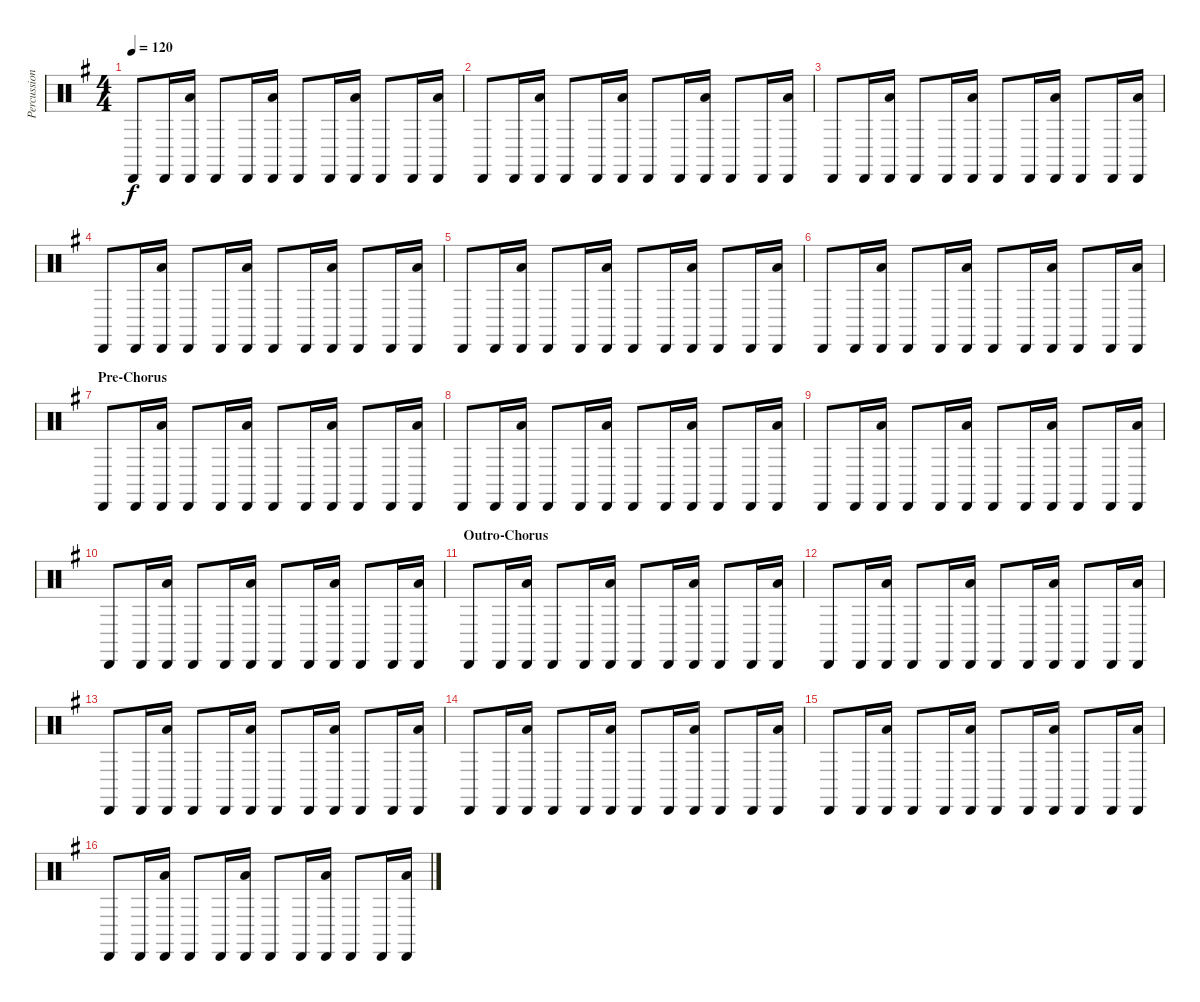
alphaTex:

\track ("Percussion" "Percussion") {instrument percussion}
\staff {score}
\articulation defaults
\ts (4 4)
\tempo 120
\clef neutral
\ks g "Cabasa (hit)".8{dy f} "Cabasa (hit)".16
("Cabasa (hit)" "Low Floor Tom (hit)").16 "Cabasa (hit)".8 "Cabasa (hit)".16 ("Cabasa (hit)" "Low Floor Tom (hit)").16 "Cabasa (hit)".8 "Cabasa (hit)".16 ("Cabasa (hit)" "Low Floor Tom (hit)").16 "Cabasa (hit)".8 "Cabasa (hit)".16 ("Cabasa (hit)" "Low Floor Tom (hit)").16 |
"Cabasa (hit)".8 "Cabasa (hit)".16 ("Cabasa (hit)" "Low Floor Tom (hit)").16 "Cabasa (hit)".8 "Cabasa (hit)".16 ("Cabasa (hit)" "Low Floor Tom (hit)").16 "Cabasa (hit)".8 "Cabasa (hit)".16 ("Cabasa (hit)" "Low Floor Tom (hit)").16 "Cabasa (hit)".8 "Cabasa (hit)".16 ("Cabasa (hit)" "Low Floor Tom (hit)").16 |
"Cabasa (hit)".8 "Cabasa (hit)".16 ("Cabasa (hit)" "Low Floor Tom (hit)").16 "Cabasa (hit)".8 "Cabasa (hit)".16 ("Cabasa (hit)" "Low Floor Tom (hit)").16 "Cabasa (hit)".8 "Cabasa (hit)".16 ("Cabasa (hit)" "Low Floor Tom (hit)").16 "Cabasa (hit)".8 "Cabasa (hit)".16 ("Cabasa (hit)" "Low Floor Tom (hit)").16 |
"Cabasa (hit)".8 "Cabasa (hit)".16 ("Cabasa (hit)" "Low Floor Tom (hit)").16 "Cabasa (hit)".8 "Cabasa (hit)".16 ("Cabasa (hit)" "Low Floor Tom (hit)").16 "Cabasa (hit)".8 "Cabasa (hit)".16 ("Cabasa (hit)" "Low Floor Tom (hit)").16 "Cabasa (hit)".8 "Cabasa (hit)".16 ("Cabasa (hit)" "Low Floor Tom (hit)").16 |
"Cabasa (hit)".8 "Cabasa (hit)".16 ("Cabasa (hit)" "Low Floor Tom (hit)").16 "Cabasa (hit)".8 "Cabasa (hit)".16 ("Cabasa (hit)" "Low Floor Tom (hit)").16 "Cabasa (hit)".8 "Cabasa (hit)".16 ("Cabasa (hit)" "Low Floor Tom (hit)").16 "Cabasa (hit)".8 "Cabasa (hit)".16 ("Cabasa (hit)" "Low Floor Tom (hit)").16 |
"Cabasa (hit)".8 "Cabasa (hit)".16 ("Cabasa (hit)" "Low Floor Tom (hit)").16 "Cabasa (hit)".8 "Cabasa (hit)".16 ("Cabasa (hit)" "Low Floor Tom (hit)").16 "Cabasa (hit)".8 "Cabasa (hit)".16 ("Cabasa (hit)" "Low Floor Tom (hit)").16 "Cabasa (hit)".8 "Cabasa (hit)".16 ("Cabasa (hit)" "Low Floor Tom (hit)").16 |
\section ("" "Pre-Chorus")
"Cabasa (hit)".8 "Cabasa (hit)".16 ("Cabasa (hit)" "Low Floor Tom (hit)").16 "Cabasa (hit)".8 "Cabasa (hit)".16 ("Cabasa (hit)" "Low Floor Tom (hit)").16 "Cabasa (hit)".8 "Cabasa (hit)".16 ("Cabasa (hit)" "Low Floor Tom (hit)").16 "Cabasa (hit)".8 "Cabasa (hit)".16 ("Cabasa (hit)" "Low Floor Tom (hit)").16 |
"Cabasa (hit)".8 "Cabasa (hit)".16 ("Cabasa (hit)" "Low Floor Tom (hit)").16 "Cabasa (hit)".8 "Cabasa (hit)".16 ("Cabasa (hit)" "Low Floor Tom (hit)").16 "Cabasa (hit)".8 "Cabasa (hit)".16 ("Cabasa (hit)" "Low Floor Tom (hit)").16 "Cabasa (hit)".8 "Cabasa (hit)".16 ("Cabasa (hit)" "Low Floor Tom (hit)").16 |
"Cabasa (hit)".8 "Cabasa (hit)".16 ("Cabasa (hit)" "Low Floor Tom (hit)").16 "Cabasa (hit)".8 "Cabasa (hit)".16 ("Cabasa (hit)" "Low Floor Tom (hit)").16 "Cabasa (hit)".8 "Cabasa (hit)".16 ("Cabasa (hit)" "Low Floor Tom (hit)").16 "Cabasa (hit)".8 "Cabasa (hit)".16 ("Cabasa (hit)" "Low Floor Tom (hit)").16 |
"Cabasa (hit)".8 "Cabasa (hit)".16 ("Cabasa (hit)" "Low Floor Tom (hit)").16 "Cabasa (hit)".8 "Cabasa (hit)".16 ("Cabasa (hit)" "Low Floor Tom (hit)").16 "Cabasa (hit)".8 "Cabasa (hit)".16 ("Cabasa (hit)" "Low Floor Tom (hit)").16 "Cabasa (hit)".8 "Cabasa (hit)".16 ("Cabasa (hit)" "Low Floor Tom (hit)").16 |
\section ("" "Outro-Chorus")
"Cabasa (hit)".8 "Cabasa (hit)".16 ("Cabasa (hit)" "Low Floor Tom (hit)").16 "Cabasa (hit)".8 "Cabasa (hit)".16 ("Cabasa (hit)" "Low Floor Tom (hit)").16 "Cabasa (hit)".8 "Cabasa (hit)".16 ("Cabasa (hit)" "Low Floor Tom (hit)").16 "Cabasa (hit)".8 "Cabasa (hit)".16 ("Cabasa (hit)" "Low Floor Tom (hit)").16 |
"Cabasa (hit)".8 "Cabasa (hit)".16 ("Cabasa (hit)" "Low Floor Tom (hit)").16 "Cabasa (hit)".8 "Cabasa (hit)".16 ("Cabasa (hit)" "Low Floor Tom (hit)").16 "Cabasa (hit)".8 "Cabasa (hit)".16 ("Cabasa (hit)" "Low Floor Tom (hit)").16 "Cabasa (hit)".8 "Cabasa (hit)".16 ("Cabasa (hit)" "Low Floor Tom (hit)").16 |
"Cabasa (hit)".8 "Cabasa (hit)".16 ("Cabasa (hit)" "Low Floor Tom (hit)").16 "Cabasa (hit)".8 "Cabasa (hit)".16 ("Cabasa (hit)" "Low Floor Tom (hit)").16 "Cabasa (hit)".8 "Cabasa (hit)".16 ("Cabasa (hit)" "Low Floor Tom (hit)").16 "Cabasa (hit)".8 "Cabasa (hit)".16 ("Cabasa (hit)" "Low Floor Tom (hit)").16 |
"Cabasa (hit)".8 "Cabasa (hit)".16 ("Cabasa (hit)" "Low Floor Tom (hit)").16 "Cabasa (hit)".8 "Cabasa (hit)".16 ("Cabasa (hit)" "Low Floor Tom (hit)").16 "Cabasa (hit)".8 "Cabasa (hit)".16 ("Cabasa (hit)" "Low Floor Tom (hit)").16 "Cabasa (hit)".8 "Cabasa (hit)".16 ("Cabasa (hit)" "Low Floor Tom (hit)").16 |
"Cabasa (hit)".8 "Cabasa (hit)".16 ("Cabasa (hit)" "Low Floor Tom (hit)").16 "Cabasa (hit)".8 "Cabasa (hit)".16 ("Cabasa (hit)" "Low Floor Tom (hit)").16 "Cabasa (hit)".8 "Cabasa (hit)".16 ("Cabasa (hit)" "Low Floor Tom (hit)").16 "Cabasa (hit)".8 "Cabasa (hit)".16 ("Cabasa (hit)" "Low Floor Tom (hit)").16 |
"Cabasa (hit)".8 "Cabasa (hit)".16 ("Cabasa (hit)" "Low Floor Tom (hit)").16 "Cabasa (hit)".8 "Cabasa (hit)".16 ("Cabasa (hit)" "Low Floor Tom (hit)").16 "Cabasa (hit)".8 "Cabasa (hit)".16 ("Cabasa (hit)" "Low Floor Tom (hit)").16 "Cabasa (hit)".8 "Cabasa (hit)".16 ("Cabasa (hit)" "Low Floor Tom (hit)").16
